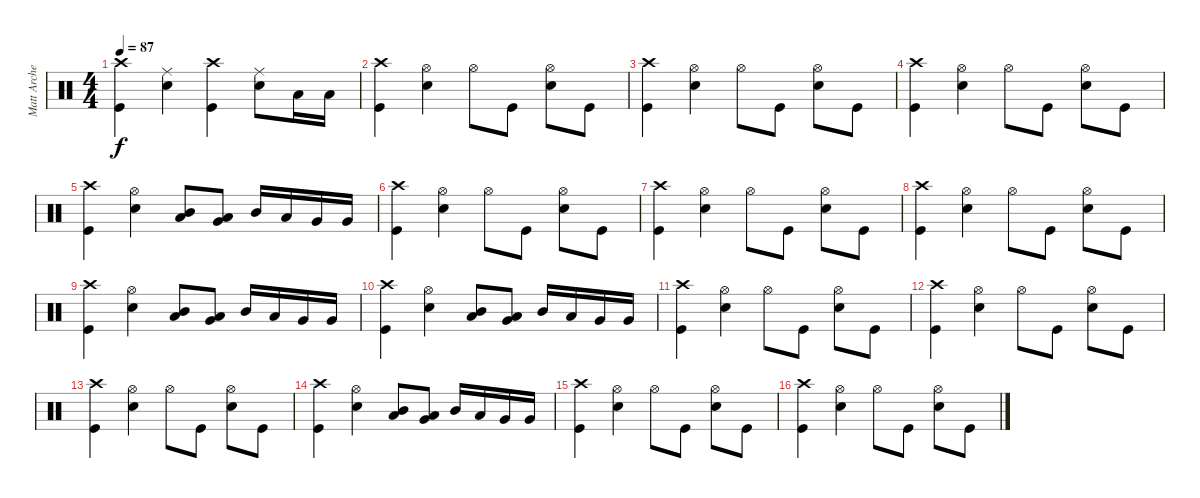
\track ("Matt Archer" "Matt Arche") {instrument percussion}
\staff {score}
\articulation defaults
\ts (4 4)
\tempo 87
\clef neutral
\ks c
("Kick (hit)" "Crash high (hit)").4{dy f} ("Snare (hit) 2" "Ride (middle)").4 ("Kick (hit)" "Crash high (hit)").4 ("Snare (hit) 2" "Ride (middle)").8 "Low Tom (hit)".16 "Low Tom (hit)".16 |
("Kick (hit)" "Crash high (hit)").4 ("Snare (hit) 2" "Hi-Hat (open)").4 "Hi-Hat (open)".8 "Kick (hit)".8 ("Snare (hit) 2" "Hi-Hat (open)").8 "Kick (hit)".8 |
("Kick (hit)" "Crash high (hit)").4 ("Snare (hit) 2" "Hi-Hat (open)").4 "Hi-Hat (open)".8 "Kick (hit)".8 ("Snare (hit) 2" "Hi-Hat (open)").8 "Kick (hit)".8 |
("Kick (hit)" "Crash high (hit)").4 ("Snare (hit) 2" "Hi-Hat (open)").4 "Hi-Hat (open)".8 "Kick (hit)".8 ("Snare (hit) 2" "Hi-Hat (open)").8 "Kick (hit)".8 |
("Kick (hit)" "Crash high (hit)").4 ("Snare (hit) 2" "Hi-Hat (open)").4 ("Mid Tom (hit)" "Low Tom (hit)").8 ("Low Tom (hit)" "Very Low Tom (hit)").8 "Mid Tom (hit)".16 "Low Tom (hit)".16 "Very Low Tom (hit)".16 "Very Low Tom (hit)".16 |
("Kick (hit)" "Crash high (hit)").4 ("Snare (hit) 2" "Hi-Hat (open)").4 "Hi-Hat (open)".8 "Kick (hit)".8 ("Snare (hit) 2" "Hi-Hat (open)").8 "Kick (hit)".8 |
("Kick (hit)" "Crash high (hit)").4 ("Snare (hit) 2" "Hi-Hat (open)").4 "Hi-Hat (open)".8 "Kick (hit)".8 ("Snare (hit) 2" "Hi-Hat (open)").8 "Kick (hit)".8 |
("Kick (hit)" "Crash high (hit)").4 ("Snare (hit) 2" "Hi-Hat (open)").4 "Hi-Hat (open)".8 "Kick (hit)".8 ("Snare (hit) 2" "Hi-Hat (open)").8 "Kick (hit)".8 |
("Kick (hit)" "Crash high (hit)").4 ("Snare (hit) 2" "Hi-Hat (open)").4 ("Mid Tom (hit)" "Low Tom (hit)").8 ("Low Tom (hit)" "Very Low Tom (hit)").8 "Mid Tom (hit)".16 "Low Tom (hit)".16 "Very Low Tom (hit)".16 "Very Low Tom (hit)".16 |
("Kick (hit)" "Crash high (hit)").4 ("Snare (hit) 2" "Hi-Hat (open)").4 ("Mid Tom (hit)" "Low Tom (hit)").8 ("Low Tom (hit)" "Very Low Tom (hit)").8 "Mid Tom (hit)".16 "Low Tom (hit)".16 "Very Low Tom (hit)".16 "Very Low Tom (hit)".16 |
("Kick (hit)" "Crash high (hit)").4 ("Snare (hit) 2" "Hi-Hat (open)").4 "Hi-Hat (open)".8 "Kick (hit)".8 ("Snare (hit) 2" "Hi-Hat (open)").8 "Kick (hit)".8 |
("Kick (hit)" "Crash high (hit)").4 ("Snare (hit) 2" "Hi-Hat (open)").4 "Hi-Hat (open)".8 "Kick (hit)".8 ("Snare (hit) 2" "Hi-Hat (open)").8 "Kick (hit)".8 |
("Kick (hit)" "Crash high (hit)").4 ("Snare (hit) 2" "Hi-Hat (open)").4 "Hi-Hat (open)".8 "Kick (hit)".8 ("Snare (hit) 2" "Hi-Hat (open)").8 "Kick (hit)".8 |
("Kick (hit)" "Crash high (hit)").4 ("Snare (hit) 2" "Hi-Hat (open)").4 ("Mid Tom (hit)" "Low Tom (hit)").8 ("Low Tom (hit)" "Very Low Tom (hit)").8 "Mid Tom (hit)".16 "Low Tom (hit)".16 "Very Low Tom (hit)".16 "Very Low Tom (hit)".16 |
("Kick (hit)" "Crash high (hit)").4 ("Snare (hit) 2" "Hi-Hat (open)").4 "Hi-Hat (open)".8 "Kick (hit)".8 ("Snare (hit) 2" "Hi-Hat (open)").8 "Kick (hit)".8 |
("Kick (hit)" "Crash high (hit)").4 ("Snare (hit) 2" "Hi-Hat (open)").4 "Hi-Hat (open)".8 "Kick (hit)".8 ("Snare (hit) 2" "Hi-Hat (open)").8 "Kick (hit)".8
